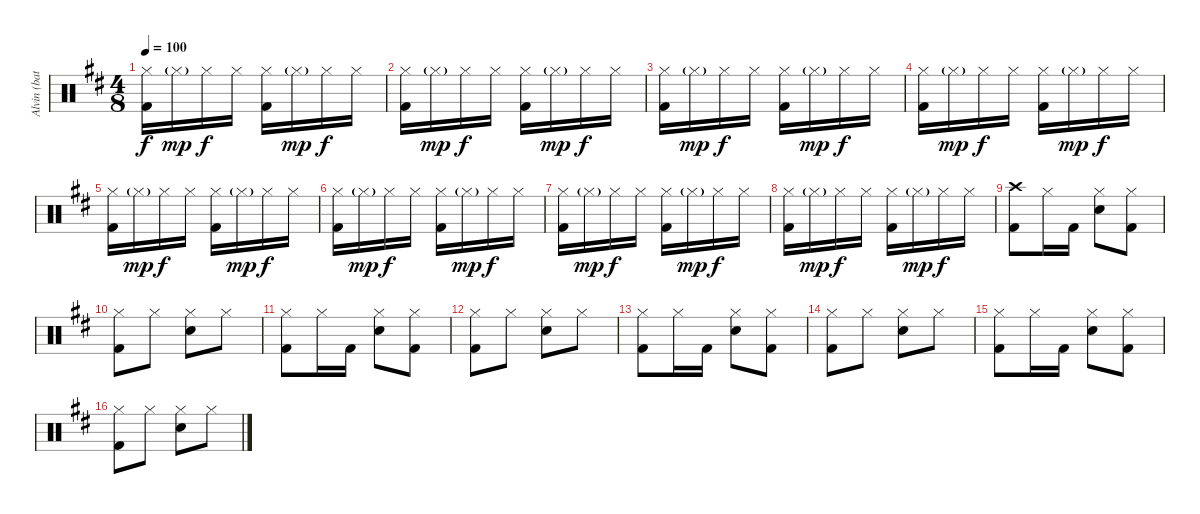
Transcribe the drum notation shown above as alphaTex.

\track ("Alvin (bateria)" "Alvin (bat") {instrument percussion}
\staff {score}
\articulation defaults
\ts (4 8)
\tempo 100
\clef neutral
\ks bminor
("Hi-Hat (closed)" "Kick (hit) 2").16{dy f} "Hi-Hat (closed)"{g}.16{dy mp} "Hi-Hat (closed)".16{dy f} "Hi-Hat (closed)".16 ("Hi-Hat (closed)" "Kick (hit) 2").16 "Hi-Hat (closed)"{g}.16{dy mp} "Hi-Hat (closed)".16{dy f} "Hi-Hat (closed)".16 |
("Hi-Hat (closed)" "Kick (hit) 2").16 "Hi-Hat (closed)"{g}.16{dy mp} "Hi-Hat (closed)".16{dy f} "Hi-Hat (closed)".16 ("Hi-Hat (closed)" "Kick (hit) 2").16 "Hi-Hat (closed)"{g}.16{dy mp} "Hi-Hat (closed)".16{dy f} "Hi-Hat (closed)".16 |
("Hi-Hat (closed)" "Kick (hit) 2").16 "Hi-Hat (closed)"{g}.16{dy mp} "Hi-Hat (closed)".16{dy f} "Hi-Hat (closed)".16 ("Hi-Hat (closed)" "Kick (hit) 2").16 "Hi-Hat (closed)"{g}.16{dy mp} "Hi-Hat (closed)".16{dy f} "Hi-Hat (closed)".16 |
("Hi-Hat (closed)" "Kick (hit) 2").16 "Hi-Hat (closed)"{g}.16{dy mp} "Hi-Hat (closed)".16{dy f} "Hi-Hat (closed)".16 ("Hi-Hat (closed)" "Kick (hit) 2").16 "Hi-Hat (closed)"{g}.16{dy mp} "Hi-Hat (closed)".16{dy f} "Hi-Hat (closed)".16 |
("Hi-Hat (closed)" "Kick (hit) 2").16 "Hi-Hat (closed)"{g}.16{dy mp} "Hi-Hat (closed)".16{dy f} "Hi-Hat (closed)".16 ("Hi-Hat (closed)" "Kick (hit) 2").16 "Hi-Hat (closed)"{g}.16{dy mp} "Hi-Hat (closed)".16{dy f} "Hi-Hat (closed)".16 |
("Hi-Hat (closed)" "Kick (hit) 2").16 "Hi-Hat (closed)"{g}.16{dy mp} "Hi-Hat (closed)".16{dy f} "Hi-Hat (closed)".16 ("Hi-Hat (closed)" "Kick (hit) 2").16 "Hi-Hat (closed)"{g}.16{dy mp} "Hi-Hat (closed)".16{dy f} "Hi-Hat (closed)".16 |
("Hi-Hat (closed)" "Kick (hit) 2").16 "Hi-Hat (closed)"{g}.16{dy mp} "Hi-Hat (closed)".16{dy f} "Hi-Hat (closed)".16 ("Hi-Hat (closed)" "Kick (hit) 2").16 "Hi-Hat (closed)"{g}.16{dy mp} "Hi-Hat (closed)".16{dy f} "Hi-Hat (closed)".16 |
("Hi-Hat (closed)" "Kick (hit) 2").16 "Hi-Hat (closed)"{g}.16{dy mp} "Hi-Hat (closed)".16{dy f} "Hi-Hat (closed)".16 ("Hi-Hat (closed)" "Kick (hit) 2").16 "Hi-Hat (closed)"{g}.16{dy mp} "Hi-Hat (closed)".16{dy f} "Hi-Hat (closed)".16 |
("Crash high (hit)" "Kick (hit) 2").8 "Hi-Hat (closed)".16 "Kick (hit) 2".16 ("Hi-Hat (closed)" "Electric Snare (hit)").8 ("Hi-Hat (closed)" "Kick (hit) 2").8 |
("Hi-Hat (closed)" "Kick (hit) 2").8 "Hi-Hat (closed)".8 ("Hi-Hat (closed)" "Electric Snare (hit)").8 "Hi-Hat (closed)".8 |
("Hi-Hat (closed)" "Kick (hit) 2").8 "Hi-Hat (closed)".16 "Kick (hit) 2".16 ("Hi-Hat (closed)" "Electric Snare (hit)").8 ("Hi-Hat (closed)" "Kick (hit) 2").8 |
("Hi-Hat (closed)" "Kick (hit) 2").8 "Hi-Hat (closed)".8 ("Hi-Hat (closed)" "Electric Snare (hit)").8 "Hi-Hat (closed)".8 |
("Hi-Hat (closed)" "Kick (hit) 2").8 "Hi-Hat (closed)".16 "Kick (hit) 2".16 ("Hi-Hat (closed)" "Electric Snare (hit)").8 ("Hi-Hat (closed)" "Kick (hit) 2").8 |
("Hi-Hat (closed)" "Kick (hit) 2").8 "Hi-Hat (closed)".8 ("Hi-Hat (closed)" "Electric Snare (hit)").8 "Hi-Hat (closed)".8 |
("Hi-Hat (closed)" "Kick (hit) 2").8 "Hi-Hat (closed)".16 "Kick (hit) 2".16 ("Hi-Hat (closed)" "Electric Snare (hit)").8 ("Hi-Hat (closed)" "Kick (hit) 2").8 |
("Hi-Hat (closed)" "Kick (hit) 2").8 "Hi-Hat (closed)".8 ("Hi-Hat (closed)" "Electric Snare (hit)").8 "Hi-Hat (closed)".8
